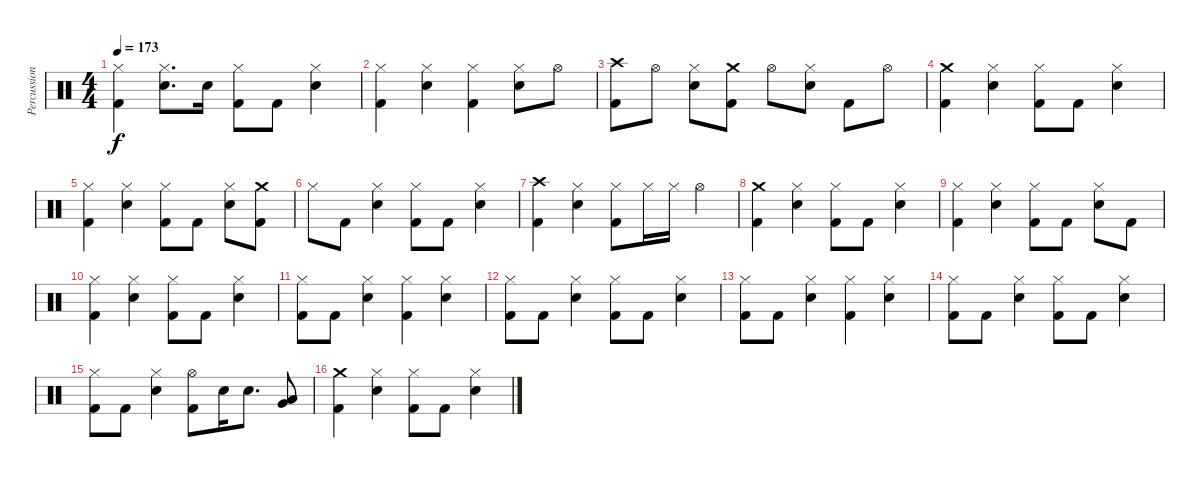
\track ("Percussion" "Percussion") {instrument percussion}
\staff {score}
\articulation defaults
\ts (4 4)
\tempo 173
\clef neutral
\ks c
("Hi-Hat (closed)" "Kick (hit) 2").4{dy f} ("Hi-Hat (closed)" "Electric Snare (hit)").8{d} "Electric Snare (hit)".16 ("Hi-Hat (closed)" "Kick (hit) 2").8 "Kick (hit) 2".8 ("Hi-Hat (closed)" "Electric Snare (hit)").4 |
("Hi-Hat (closed)" "Kick (hit) 2").4 ("Hi-Hat (closed)" "Electric Snare (hit)").4 ("Hi-Hat (closed)" "Kick (hit) 2").4 ("Hi-Hat (closed)" "Electric Snare (hit)").8 "Hi-Hat (open)".8 |
("Crash high (hit)" "Kick (hit) 2").8 "Hi-Hat (open)".8 ("Hi-Hat (closed)" "Electric Snare (hit)").8 ("Crash medium (hit)" "Kick (hit) 2").8 "Hi-Hat (open)".8 ("Hi-Hat (closed)" "Electric Snare (hit)").8 "Kick (hit) 2".8 "Hi-Hat (open)".8 |
("Crash medium (hit)" "Kick (hit) 2").4 ("Hi-Hat (closed)" "Electric Snare (hit)").4 ("Hi-Hat (closed)" "Kick (hit) 2").8 "Kick (hit) 2".8 ("Hi-Hat (closed)" "Electric Snare (hit)").4 |
("Hi-Hat (closed)" "Kick (hit) 2").4 ("Hi-Hat (closed)" "Electric Snare (hit)").4 ("Hi-Hat (closed)" "Kick (hit) 2").8 "Kick (hit) 2".8 ("Hi-Hat (closed)" "Electric Snare (hit)").8 ("Crash medium (hit)" "Kick (hit) 2").8 |
"Hi-Hat (closed)".8 "Kick (hit) 2".8 ("Hi-Hat (closed)" "Electric Snare (hit)").4 ("Hi-Hat (closed)" "Kick (hit) 2").8 "Kick (hit) 2".8 ("Hi-Hat (closed)" "Electric Snare (hit)").4 |
("Crash high (hit)" "Kick (hit) 2").4 ("Hi-Hat (closed)" "Electric Snare (hit)").4 ("Hi-Hat (closed)" "Kick (hit) 2").8 "Hi-Hat (closed)".16 "Hi-Hat (closed)".16 "Hi-Hat (open)".4 |
("Crash medium (hit)" "Kick (hit) 2").4 ("Hi-Hat (closed)" "Electric Snare (hit)").4 ("Hi-Hat (closed)" "Kick (hit) 2").8 "Kick (hit) 2".8 ("Hi-Hat (closed)" "Electric Snare (hit)").4 |
("Hi-Hat (closed)" "Kick (hit) 2").4 ("Hi-Hat (closed)" "Electric Snare (hit)").4 ("Hi-Hat (closed)" "Kick (hit) 2").8 "Kick (hit) 2".8 ("Hi-Hat (closed)" "Electric Snare (hit)").8 "Kick (hit) 2".8 |
("Hi-Hat (closed)" "Kick (hit) 2").4 ("Hi-Hat (closed)" "Electric Snare (hit)").4 ("Hi-Hat (closed)" "Kick (hit) 2").8 "Kick (hit) 2".8 ("Hi-Hat (closed)" "Electric Snare (hit)").4 |
("Hi-Hat (closed)" "Kick (hit) 2").8 "Kick (hit) 2".8 ("Hi-Hat (closed)" "Electric Snare (hit)").4 ("Hi-Hat (closed)" "Kick (hit) 2").4 ("Hi-Hat (closed)" "Electric Snare (hit)").4 |
("Hi-Hat (closed)" "Kick (hit) 2").8 "Kick (hit) 2".8 ("Hi-Hat (closed)" "Electric Snare (hit)").4 ("Hi-Hat (closed)" "Kick (hit) 2").8 "Kick (hit) 2".8 ("Hi-Hat (closed)" "Electric Snare (hit)").4 |
("Hi-Hat (closed)" "Kick (hit) 2").8 "Kick (hit) 2".8 ("Hi-Hat (closed)" "Electric Snare (hit)").4 ("Hi-Hat (closed)" "Kick (hit) 2").4 ("Hi-Hat (closed)" "Electric Snare (hit)").4 |
("Hi-Hat (closed)" "Kick (hit) 2").8 "Kick (hit) 2".8 ("Hi-Hat (closed)" "Electric Snare (hit)").4 ("Hi-Hat (closed)" "Kick (hit) 2").8 "Kick (hit) 2".8 ("Hi-Hat (closed)" "Electric Snare (hit)").4 |
("Hi-Hat (closed)" "Kick (hit) 2").8 "Kick (hit) 2".8 ("Hi-Hat (closed)" "Electric Snare (hit)").4 ("Hi-Hat (open)" "Kick (hit) 2").8 "Electric Snare (hit)".16 "Electric Snare (hit)".8{d} ("Very Low Tom (hit)" "Low Tom (hit)").8 |
("Crash medium (hit)" "Kick (hit) 2").4 ("Hi-Hat (closed)" "Electric Snare (hit)").4 ("Hi-Hat (closed)" "Kick (hit) 2").8 "Kick (hit) 2".8 ("Hi-Hat (closed)" "Electric Snare (hit)").4
